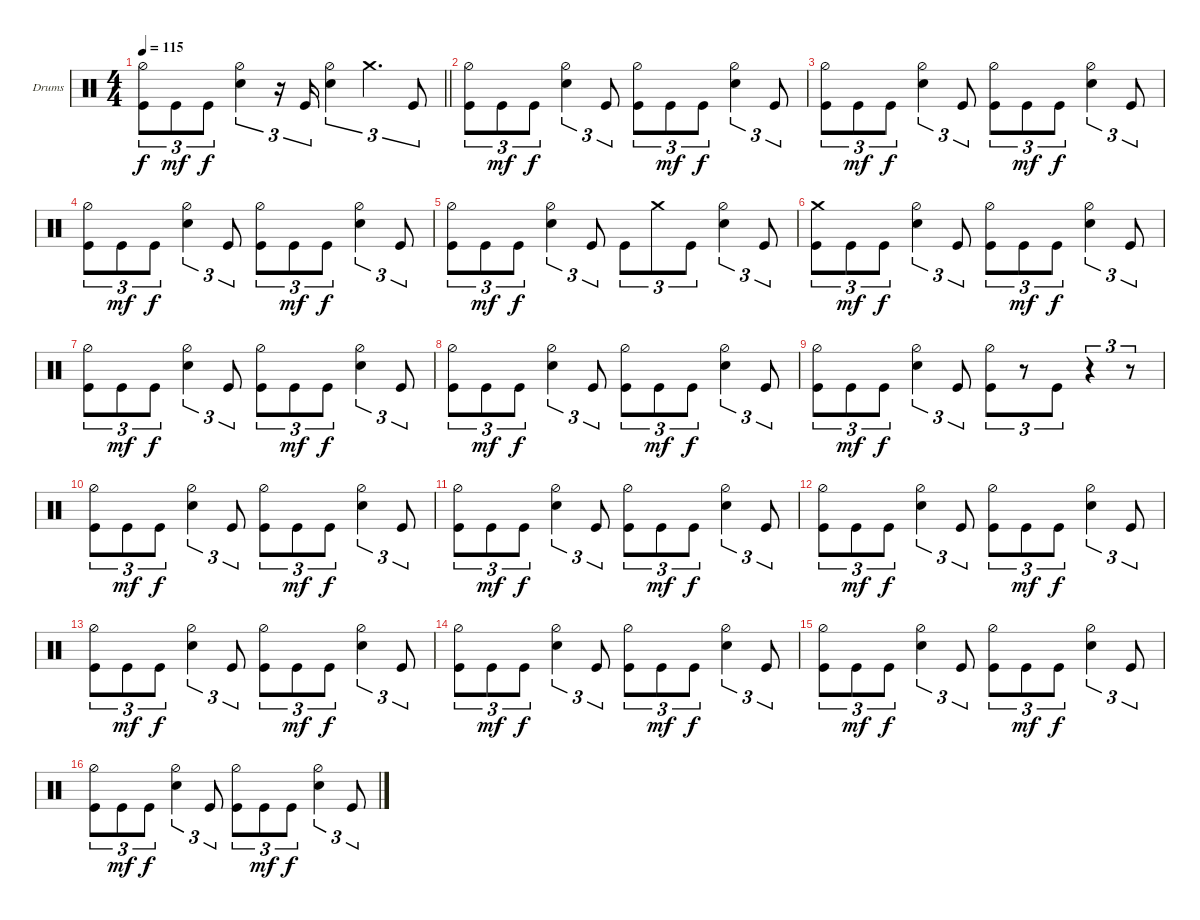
\defaultSystemsLayout 4
\bracketExtendMode groupsimilarinstruments
\firstSystemTrackNameOrientation horizontal
\otherSystemsTrackNameOrientation horizontal
\track ("Drumkit" "Drums") {instrument percussion}
\staff {score}
\articulation defaults
\ts (4 4)
\tempo 115
\clef neutral
\barLineRight lightlight
\ks aminor
("Kick (hit)" "Hi-Hat (half)").8{tu (3 2) dy f} "Kick (hit)".8{tu (3 2) dy mf} "Kick (hit)".8{tu (3 2) dy f} ("Snare (hit) 2" "Hi-Hat (half)").4{tu (3 2)} r.16{tu (3 2)} "Kick (hit)".16{tu (3 2)} ("Snare (hit) 2" "Hi-Hat (half)").4{tu (3 2)} "Crash medium (hit)".4{d tu (3 2)} "Kick (hit)".8{tu (3 2)} |
("Kick (hit)" "Hi-Hat (half)").8{tu (3 2)} "Kick (hit)".8{tu (3 2) dy mf} "Kick (hit)".8{tu (3 2) dy f} ("Snare (hit) 2" "Hi-Hat (half)").4{tu (3 2)} "Kick (hit)".8{tu (3 2)} ("Kick (hit)" "Hi-Hat (half)").8{tu (3 2)} "Kick (hit)".8{tu (3 2) dy mf} "Kick (hit)".8{tu (3 2) dy f} ("Snare (hit) 2" "Hi-Hat (half)").4{tu (3 2)} "Kick (hit)".8{tu (3 2)} |
("Kick (hit)" "Hi-Hat (half)").8{tu (3 2)} "Kick (hit)".8{tu (3 2) dy mf} "Kick (hit)".8{tu (3 2) dy f} ("Snare (hit) 2" "Hi-Hat (half)").4{tu (3 2)} "Kick (hit)".8{tu (3 2)} ("Kick (hit)" "Hi-Hat (half)").8{tu (3 2)} "Kick (hit)".8{tu (3 2) dy mf} "Kick (hit)".8{tu (3 2) dy f} ("Snare (hit) 2" "Hi-Hat (half)").4{tu (3 2)} "Kick (hit)".8{tu (3 2)} |
("Kick (hit)" "Hi-Hat (half)").8{tu (3 2)} "Kick (hit)".8{tu (3 2) dy mf} "Kick (hit)".8{tu (3 2) dy f} ("Snare (hit) 2" "Hi-Hat (half)").4{tu (3 2)} "Kick (hit)".8{tu (3 2)} ("Kick (hit)" "Hi-Hat (half)").8{tu (3 2)} "Kick (hit)".8{tu (3 2) dy mf} "Kick (hit)".8{tu (3 2) dy f} ("Snare (hit) 2" "Hi-Hat (half)").4{tu (3 2)} "Kick (hit)".8{tu (3 2)} |
("Kick (hit)" "Hi-Hat (half)").8{tu (3 2)} "Kick (hit)".8{tu (3 2) dy mf} "Kick (hit)".8{tu (3 2) dy f} ("Snare (hit) 2" "Hi-Hat (half)").4{tu (3 2)} "Kick (hit)".8{tu (3 2)} "Kick (hit)".8{tu (3 2)} "Crash medium (hit)".8{tu (3 2)} "Kick (hit)".8{tu (3 2)} ("Snare (hit) 2" "Hi-Hat (half)").4{tu (3 2)} "Kick (hit)".8{tu (3 2)} |
("Kick (hit)" "Crash medium (hit)").8{tu (3 2)} "Kick (hit)".8{tu (3 2) dy mf} "Kick (hit)".8{tu (3 2) dy f} ("Snare (hit) 2" "Hi-Hat (half)").4{tu (3 2)} "Kick (hit)".8{tu (3 2)} ("Kick (hit)" "Hi-Hat (half)").8{tu (3 2)} "Kick (hit)".8{tu (3 2) dy mf} "Kick (hit)".8{tu (3 2) dy f} ("Snare (hit) 2" "Hi-Hat (half)").4{tu (3 2)} "Kick (hit)".8{tu (3 2)} |
("Kick (hit)" "Hi-Hat (half)").8{tu (3 2)} "Kick (hit)".8{tu (3 2) dy mf} "Kick (hit)".8{tu (3 2) dy f} ("Snare (hit) 2" "Hi-Hat (half)").4{tu (3 2)} "Kick (hit)".8{tu (3 2)} ("Kick (hit)" "Hi-Hat (half)").8{tu (3 2)} "Kick (hit)".8{tu (3 2) dy mf} "Kick (hit)".8{tu (3 2) dy f} ("Snare (hit) 2" "Hi-Hat (half)").4{tu (3 2)} "Kick (hit)".8{tu (3 2)} |
("Kick (hit)" "Hi-Hat (half)").8{tu (3 2)} "Kick (hit)".8{tu (3 2) dy mf} "Kick (hit)".8{tu (3 2) dy f} ("Snare (hit) 2" "Hi-Hat (half)").4{tu (3 2)} "Kick (hit)".8{tu (3 2)} ("Kick (hit)" "Hi-Hat (half)").8{tu (3 2)} "Kick (hit)".8{tu (3 2) dy mf} "Kick (hit)".8{tu (3 2) dy f} ("Snare (hit) 2" "Hi-Hat (half)").4{tu (3 2)} "Kick (hit)".8{tu (3 2)} |
("Kick (hit)" "Hi-Hat (half)").8{tu (3 2)} "Kick (hit)".8{tu (3 2) dy mf} "Kick (hit)".8{tu (3 2) dy f} ("Snare (hit) 2" "Hi-Hat (half)").4{tu (3 2)} "Kick (hit)".8{tu (3 2)} ("Kick (hit)" "Hi-Hat (half)").8{tu (3 2)} r.8{tu (3 2)} "Kick (hit)".8{tu (3 2)} r.4{tu (3 2)} r.8{tu (3 2)} |
("Kick (hit)" "Hi-Hat (half)").8{tu (3 2)} "Kick (hit)".8{tu (3 2) dy mf} "Kick (hit)".8{tu (3 2) dy f} ("Snare (hit) 2" "Hi-Hat (half)").4{tu (3 2)} "Kick (hit)".8{tu (3 2)} ("Kick (hit)" "Hi-Hat (half)").8{tu (3 2)} "Kick (hit)".8{tu (3 2) dy mf} "Kick (hit)".8{tu (3 2) dy f} ("Snare (hit) 2" "Hi-Hat (half)").4{tu (3 2)} "Kick (hit)".8{tu (3 2)} |
("Kick (hit)" "Hi-Hat (half)").8{tu (3 2)} "Kick (hit)".8{tu (3 2) dy mf} "Kick (hit)".8{tu (3 2) dy f} ("Snare (hit) 2" "Hi-Hat (half)").4{tu (3 2)} "Kick (hit)".8{tu (3 2)} ("Kick (hit)" "Hi-Hat (half)").8{tu (3 2)} "Kick (hit)".8{tu (3 2) dy mf} "Kick (hit)".8{tu (3 2) dy f} ("Snare (hit) 2" "Hi-Hat (half)").4{tu (3 2)} "Kick (hit)".8{tu (3 2)} |
("Kick (hit)" "Hi-Hat (half)").8{tu (3 2)} "Kick (hit)".8{tu (3 2) dy mf} "Kick (hit)".8{tu (3 2) dy f} ("Snare (hit) 2" "Hi-Hat (half)").4{tu (3 2)} "Kick (hit)".8{tu (3 2)} ("Kick (hit)" "Hi-Hat (half)").8{tu (3 2)} "Kick (hit)".8{tu (3 2) dy mf} "Kick (hit)".8{tu (3 2) dy f} ("Snare (hit) 2" "Hi-Hat (half)").4{tu (3 2)} "Kick (hit)".8{tu (3 2)} |
("Kick (hit)" "Hi-Hat (half)").8{tu (3 2)} "Kick (hit)".8{tu (3 2) dy mf} "Kick (hit)".8{tu (3 2) dy f} ("Snare (hit) 2" "Hi-Hat (half)").4{tu (3 2)} "Kick (hit)".8{tu (3 2)} ("Kick (hit)" "Hi-Hat (half)").8{tu (3 2)} "Kick (hit)".8{tu (3 2) dy mf} "Kick (hit)".8{tu (3 2) dy f} ("Snare (hit) 2" "Hi-Hat (half)").4{tu (3 2)} "Kick (hit)".8{tu (3 2)} |
("Kick (hit)" "Hi-Hat (half)").8{tu (3 2)} "Kick (hit)".8{tu (3 2) dy mf} "Kick (hit)".8{tu (3 2) dy f} ("Snare (hit) 2" "Hi-Hat (half)").4{tu (3 2)} "Kick (hit)".8{tu (3 2)} ("Kick (hit)" "Hi-Hat (half)").8{tu (3 2)} "Kick (hit)".8{tu (3 2) dy mf} "Kick (hit)".8{tu (3 2) dy f} ("Snare (hit) 2" "Hi-Hat (half)").4{tu (3 2)} "Kick (hit)".8{tu (3 2)} |
("Kick (hit)" "Hi-Hat (half)").8{tu (3 2)} "Kick (hit)".8{tu (3 2) dy mf} "Kick (hit)".8{tu (3 2) dy f} ("Snare (hit) 2" "Hi-Hat (half)").4{tu (3 2)} "Kick (hit)".8{tu (3 2)} ("Kick (hit)" "Hi-Hat (half)").8{tu (3 2)} "Kick (hit)".8{tu (3 2) dy mf} "Kick (hit)".8{tu (3 2) dy f} ("Snare (hit) 2" "Hi-Hat (half)").4{tu (3 2)} "Kick (hit)".8{tu (3 2)} |
("Kick (hit)" "Hi-Hat (half)").8{tu (3 2)} "Kick (hit)".8{tu (3 2) dy mf} "Kick (hit)".8{tu (3 2) dy f} ("Snare (hit) 2" "Hi-Hat (half)").4{tu (3 2)} "Kick (hit)".8{tu (3 2)} ("Kick (hit)" "Hi-Hat (half)").8{tu (3 2)} "Kick (hit)".8{tu (3 2) dy mf} "Kick (hit)".8{tu (3 2) dy f} ("Snare (hit) 2" "Hi-Hat (half)").4{tu (3 2)} "Kick (hit)".8{tu (3 2)}
